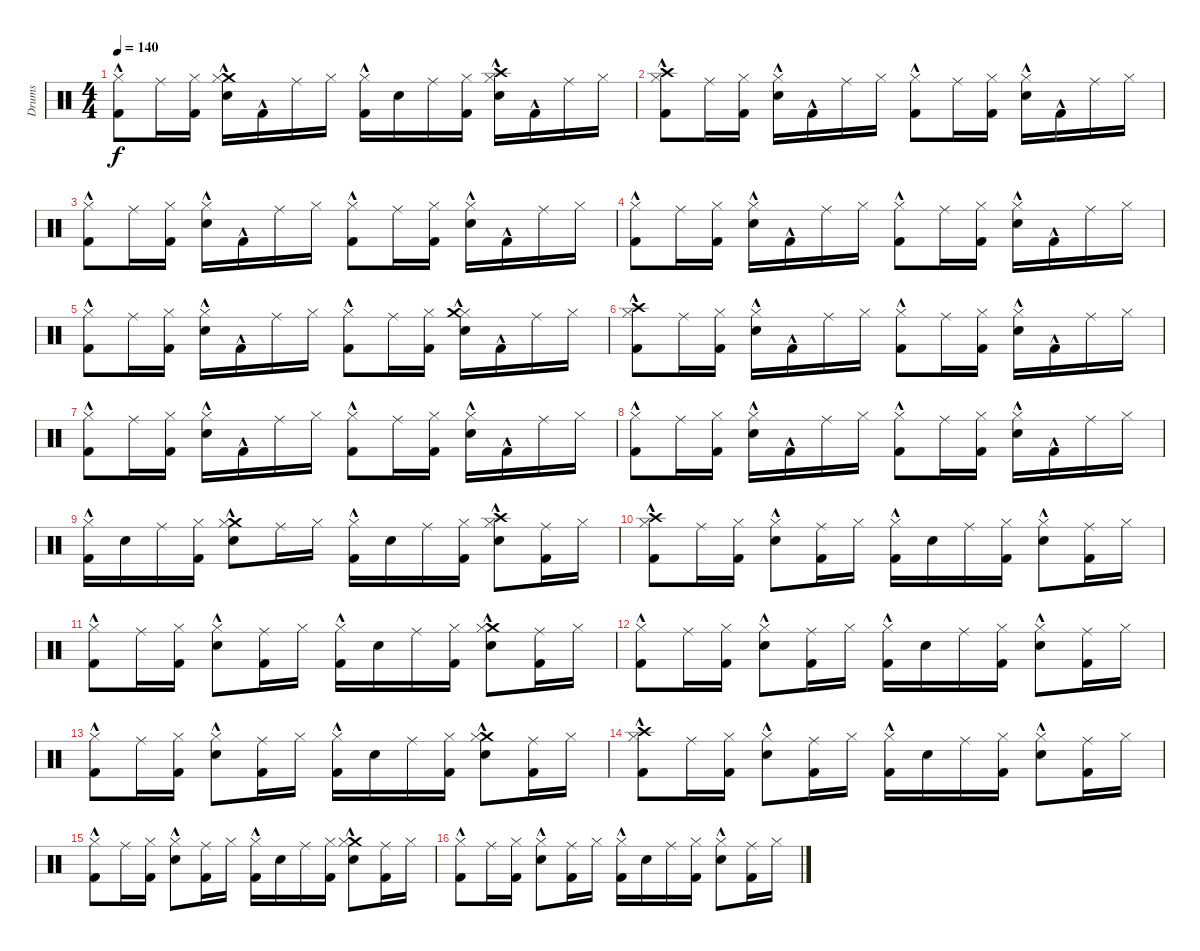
\track ("Drums" "Drums") {instrument percussion}
\staff {score}
\articulation defaults
\ts (4 4)
\tempo 140
\clef neutral
\ks c
("Hi-Hat (closed)"{hac} "Kick (hit) 2"{hac}).8{dy f} "Ride (middle)".16 ("Hi-Hat (closed)" "Kick (hit) 2").16 ("Crash medium (hit)" "Electric Snare (hit)" "Hi-Hat (closed)"{hac}).16 "Kick (hit) 2"{hac}.16 "Ride (middle)".16 "Hi-Hat (closed)".16 ("Kick (hit) 2" "Hi-Hat (closed)"{hac}).16 "Electric Snare (hit)".16 "Ride (middle)".16 ("Hi-Hat (closed)" "Kick (hit) 2").16 ("Hi-Hat (closed)"{hac} "Crash high (hit)" "Electric Snare (hit)").16 "Kick (hit) 2"{hac}.16 "Ride (middle)".16 "Hi-Hat (closed)".16 |
("Hi-Hat (closed)"{hac} "Crash high (hit)" "Kick (hit) 2"{hac}).8 "Ride (middle)".16 ("Hi-Hat (closed)" "Kick (hit) 2").16 ("Electric Snare (hit)" "Hi-Hat (closed)"{hac}).16 "Kick (hit) 2"{hac}.16 "Ride (middle)".16 "Hi-Hat (closed)".16 ("Kick (hit) 2"{hac} "Hi-Hat (closed)"{hac}).8 "Ride (middle)".16 ("Kick (hit) 2" "Hi-Hat (closed)").16 ("Electric Snare (hit)" "Hi-Hat (closed)"{hac}).16 "Kick (hit) 2"{hac}.16 "Ride (middle)".16 "Hi-Hat (closed)".16 |
("Kick (hit) 2"{hac} "Hi-Hat (closed)"{hac}).8 "Ride (middle)".16 ("Hi-Hat (closed)" "Kick (hit) 2").16 ("Hi-Hat (closed)"{hac} "Electric Snare (hit)").16 "Kick (hit) 2"{hac}.16 "Ride (middle)".16 "Hi-Hat (closed)".16 ("Hi-Hat (closed)"{hac} "Kick (hit) 2"{hac}).8 "Ride (middle)".16 ("Kick (hit) 2" "Hi-Hat (closed)").16 ("Hi-Hat (closed)"{hac} "Electric Snare (hit)").16 "Kick (hit) 2"{hac}.16 "Ride (middle)".16 "Hi-Hat (closed)".16 |
("Kick (hit) 2"{hac} "Hi-Hat (closed)"{hac}).8 "Ride (middle)".16 ("Hi-Hat (closed)" "Kick (hit) 2").16 ("Electric Snare (hit)" "Hi-Hat (closed)"{hac}).16 "Kick (hit) 2"{hac}.16 "Ride (middle)".16 "Hi-Hat (closed)".16 ("Kick (hit) 2"{hac} "Hi-Hat (closed)"{hac}).8 "Ride (middle)".16 ("Hi-Hat (closed)" "Kick (hit) 2").16 ("Electric Snare (hit)" "Hi-Hat (closed)"{hac}).16 "Kick (hit) 2"{hac}.16 "Ride (middle)".16 "Hi-Hat (closed)".16 |
("Hi-Hat (closed)"{hac} "Kick (hit) 2"{hac}).8 "Ride (middle)".16 ("Hi-Hat (closed)" "Kick (hit) 2").16 ("Electric Snare (hit)" "Hi-Hat (closed)"{hac}).16 "Kick (hit) 2"{hac}.16 "Ride (middle)".16 "Hi-Hat (closed)".16 ("Hi-Hat (closed)"{hac} "Kick (hit) 2"{hac}).8 "Ride (middle)".16 ("Hi-Hat (closed)" "Kick (hit) 2").16 ("Electric Snare (hit)" "Hi-Hat (closed)"{hac} "Crash medium (hit)").16 "Kick (hit) 2"{hac}.16 "Ride (middle)".16 "Hi-Hat (closed)".16 |
("Crash high (hit)" "Kick (hit) 2"{hac} "Hi-Hat (closed)"{hac}).8 "Ride (middle)".16 ("Kick (hit) 2" "Hi-Hat (closed)").16 ("Electric Snare (hit)" "Hi-Hat (closed)"{hac}).16 "Kick (hit) 2"{hac}.16 "Ride (middle)".16 "Hi-Hat (closed)".16 ("Hi-Hat (closed)"{hac} "Kick (hit) 2"{hac}).8 "Ride (middle)".16 ("Kick (hit) 2" "Hi-Hat (closed)").16 ("Hi-Hat (closed)"{hac} "Electric Snare (hit)").16 "Kick (hit) 2"{hac}.16 "Ride (middle)".16 "Hi-Hat (closed)".16 |
("Hi-Hat (closed)"{hac} "Kick (hit) 2"{hac}).8 "Ride (middle)".16 ("Hi-Hat (closed)" "Kick (hit) 2").16 ("Electric Snare (hit)" "Hi-Hat (closed)"{hac}).16 "Kick (hit) 2"{hac}.16 "Ride (middle)".16 "Hi-Hat (closed)".16 ("Kick (hit) 2"{hac} "Hi-Hat (closed)"{hac}).8 "Ride (middle)".16 ("Hi-Hat (closed)" "Kick (hit) 2").16 ("Electric Snare (hit)" "Hi-Hat (closed)"{hac}).16 "Kick (hit) 2"{hac}.16 "Ride (middle)".16 "Hi-Hat (closed)".16 |
("Kick (hit) 2"{hac} "Hi-Hat (closed)"{hac}).8 "Ride (middle)".16 ("Hi-Hat (closed)" "Kick (hit) 2").16 ("Hi-Hat (closed)"{hac} "Electric Snare (hit)").16 "Kick (hit) 2"{hac}.16 "Ride (middle)".16 "Hi-Hat (closed)".16 ("Kick (hit) 2"{hac} "Hi-Hat (closed)"{hac}).8 "Ride (middle)".16 ("Kick (hit) 2" "Hi-Hat (closed)").16 ("Electric Snare (hit)" "Hi-Hat (closed)"{hac}).16 "Kick (hit) 2"{hac}.16 "Ride (middle)".16 "Hi-Hat (closed)".16 |
("Hi-Hat (closed)"{hac} "Kick (hit) 2").16 "Electric Snare (hit)".16 "Ride (middle)".16 ("Kick (hit) 2" "Hi-Hat (closed)").16 ("Crash medium (hit)" "Electric Snare (hit)" "Hi-Hat (closed)"{hac}).8 "Ride (middle)".16 "Hi-Hat (closed)".16 ("Hi-Hat (closed)"{hac} "Kick (hit) 2").16 "Electric Snare (hit)".16 "Ride (middle)".16 ("Kick (hit) 2" "Hi-Hat (closed)").16 ("Crash high (hit)" "Electric Snare (hit)" "Hi-Hat (closed)"{hac}).8 ("Kick (hit) 2" "Ride (middle)").16 "Hi-Hat (closed)".16 |
("Hi-Hat (closed)"{hac} "Crash high (hit)" "Kick (hit) 2"{hac}).8 "Ride (middle)".16 ("Hi-Hat (closed)" "Kick (hit) 2").16 ("Electric Snare (hit)" "Hi-Hat (closed)"{hac}).8 ("Ride (middle)" "Kick (hit) 2").16 "Hi-Hat (closed)".16 ("Kick (hit) 2" "Hi-Hat (closed)"{hac}).16 "Electric Snare (hit)".16 "Ride (middle)".16 ("Kick (hit) 2" "Hi-Hat (closed)").16 ("Electric Snare (hit)" "Hi-Hat (closed)"{hac}).8 ("Ride (middle)" "Kick (hit) 2").16 "Hi-Hat (closed)".16 |
("Hi-Hat (closed)"{hac} "Kick (hit) 2"{hac}).8 "Ride (middle)".16 ("Kick (hit) 2" "Hi-Hat (closed)").16 ("Electric Snare (hit)" "Hi-Hat (closed)"{hac}).8 ("Kick (hit) 2" "Ride (middle)").16 "Hi-Hat (closed)".16 ("Hi-Hat (closed)"{hac} "Kick (hit) 2").16 "Electric Snare (hit)".16 "Ride (middle)".16 ("Kick (hit) 2" "Hi-Hat (closed)").16 ("Crash medium (hit)" "Hi-Hat (closed)"{hac} "Electric Snare (hit)").8 ("Kick (hit) 2" "Ride (middle)").16 "Hi-Hat (closed)".16 |
("Hi-Hat (closed)"{hac} "Kick (hit) 2"{hac}).8 "Ride (middle)".16 ("Hi-Hat (closed)" "Kick (hit) 2").16 ("Electric Snare (hit)" "Hi-Hat (closed)"{hac}).8 ("Ride (middle)" "Kick (hit) 2").16 "Hi-Hat (closed)".16 ("Kick (hit) 2" "Hi-Hat (closed)"{hac}).16 "Electric Snare (hit)".16 "Ride (middle)".16 ("Kick (hit) 2" "Hi-Hat (closed)").16 ("Electric Snare (hit)" "Hi-Hat (closed)"{hac}).8 ("Ride (middle)" "Kick (hit) 2").16 "Hi-Hat (closed)".16 |
("Hi-Hat (closed)"{hac} "Kick (hit) 2"{hac}).8 "Ride (middle)".16 ("Kick (hit) 2" "Hi-Hat (closed)").16 ("Electric Snare (hit)" "Hi-Hat (closed)"{hac}).8 ("Kick (hit) 2" "Ride (middle)").16 "Hi-Hat (closed)".16 ("Hi-Hat (closed)"{hac} "Kick (hit) 2").16 "Electric Snare (hit)".16 "Ride (middle)".16 ("Kick (hit) 2" "Hi-Hat (closed)").16 ("Crash medium (hit)" "Hi-Hat (closed)"{hac} "Electric Snare (hit)").8 ("Kick (hit) 2" "Ride (middle)").16 "Hi-Hat (closed)".16 |
("Hi-Hat (closed)"{hac} "Crash high (hit)" "Kick (hit) 2"{hac}).8 "Ride (middle)".16 ("Hi-Hat (closed)" "Kick (hit) 2").16 ("Electric Snare (hit)" "Hi-Hat (closed)"{hac}).8 ("Ride (middle)" "Kick (hit) 2").16 "Hi-Hat (closed)".16 ("Kick (hit) 2" "Hi-Hat (closed)"{hac}).16 "Electric Snare (hit)".16 "Ride (middle)".16 ("Kick (hit) 2" "Hi-Hat (closed)").16 ("Electric Snare (hit)" "Hi-Hat (closed)"{hac}).8 ("Ride (middle)" "Kick (hit) 2").16 "Hi-Hat (closed)".16 |
("Hi-Hat (closed)"{hac} "Kick (hit) 2"{hac}).8 "Ride (middle)".16 ("Kick (hit) 2" "Hi-Hat (closed)").16 ("Electric Snare (hit)" "Hi-Hat (closed)"{hac}).8 ("Kick (hit) 2" "Ride (middle)").16 "Hi-Hat (closed)".16 ("Hi-Hat (closed)"{hac} "Kick (hit) 2").16 "Electric Snare (hit)".16 "Ride (middle)".16 ("Kick (hit) 2" "Hi-Hat (closed)").16 ("Crash medium (hit)" "Hi-Hat (closed)"{hac} "Electric Snare (hit)").8 ("Kick (hit) 2" "Ride (middle)").16 "Hi-Hat (closed)".16 |
("Hi-Hat (closed)"{hac} "Kick (hit) 2"{hac}).8 "Ride (middle)".16 ("Kick (hit) 2" "Hi-Hat (closed)").16 ("Electric Snare (hit)" "Hi-Hat (closed)"{hac}).8 ("Kick (hit) 2" "Ride (middle)").16 "Hi-Hat (closed)".16 ("Hi-Hat (closed)"{hac} "Kick (hit) 2").16 "Electric Snare (hit)".16 "Ride (middle)".16 ("Kick (hit) 2" "Hi-Hat (closed)").16 ("Hi-Hat (closed)"{hac} "Electric Snare (hit)").8 ("Kick (hit) 2" "Ride (middle)").16 "Hi-Hat (closed)".16
